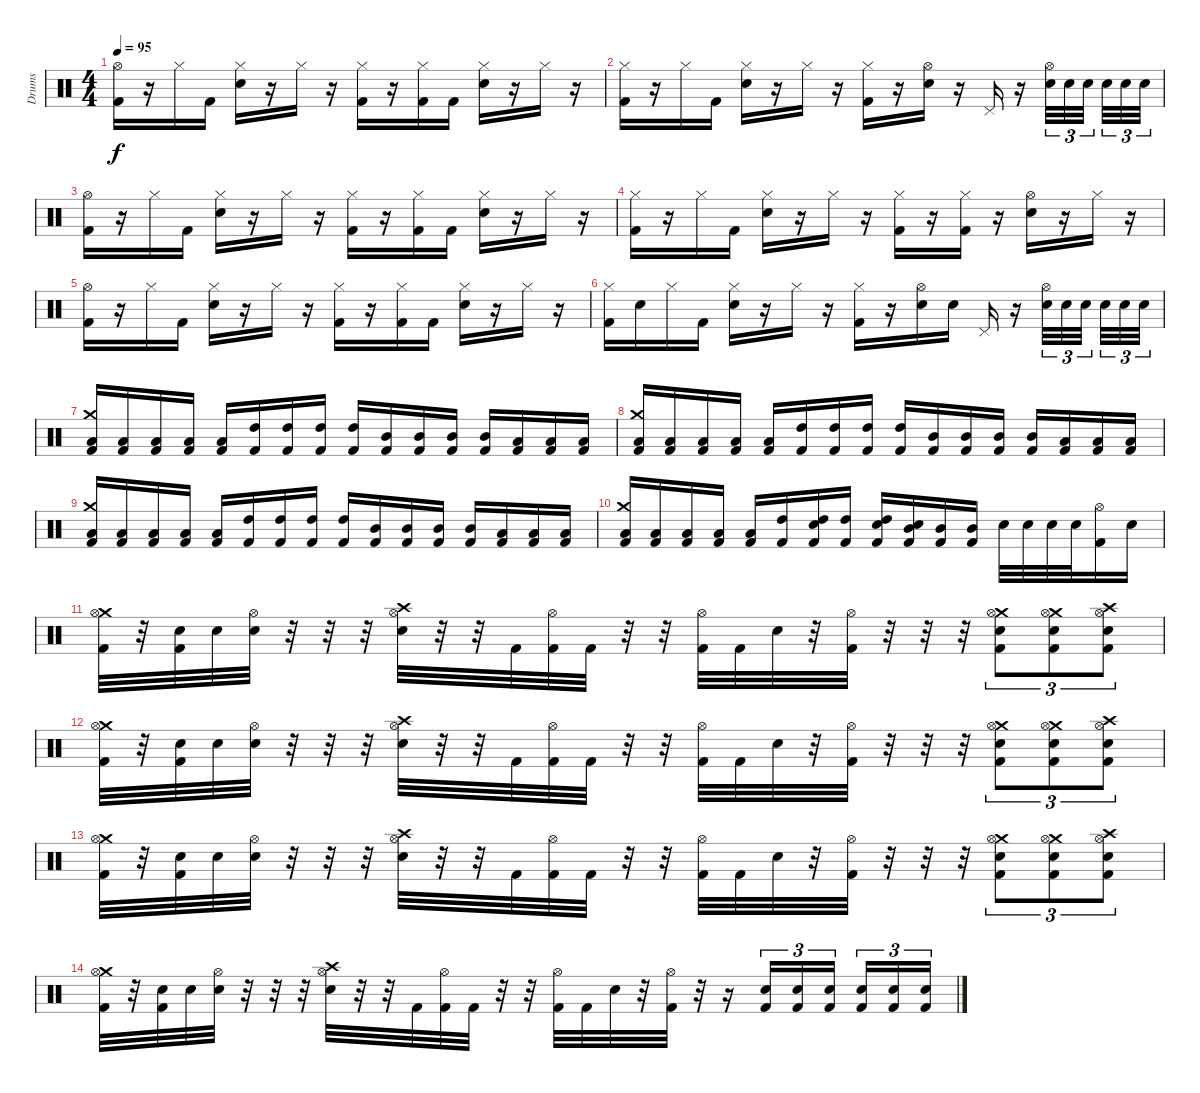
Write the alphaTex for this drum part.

\track ("Drums" "Drums") {instrument percussion}
\staff {score}
\articulation defaults
\ts (4 4)
\tempo 95
\clef neutral
\ks c
("Hi-Hat (open)" "Kick (hit) 2").16{dy f} r.16 "Hi-Hat (closed)".16 "Kick (hit) 2".16 ("Hi-Hat (closed)" "Electric Snare (hit)").16 r.16 "Hi-Hat (closed)".16 r.16 ("Hi-Hat (closed)" "Kick (hit) 2").16 r.16 ("Hi-Hat (closed)" "Kick (hit) 2").16 "Kick (hit) 2".16 ("Hi-Hat (closed)" "Electric Snare (hit)").16 r.16 "Hi-Hat (closed)".16 r.16 |
("Hi-Hat (closed)" "Kick (hit) 2").16 r.16 "Hi-Hat (closed)".16 "Kick (hit) 2".16 ("Hi-Hat (closed)" "Electric Snare (hit)").16 r.16 "Hi-Hat (closed)".16 r.16 ("Hi-Hat (closed)" "Kick (hit) 2").16 r.16 ("Hi-Hat (open)" "Electric Snare (hit)").16 r.16 "Pedal Hi-Hat (hit)".16 r.16 ("Hi-Hat (open)" "Electric Snare (hit)").32{tu (3 2)} "Electric Snare (hit)".32{tu (3 2)} "Electric Snare (hit)".32{tu (3 2)} "Electric Snare (hit)".32{tu (3 2)} "Electric Snare (hit)".32{tu (3 2)} "Electric Snare (hit)".32{tu (3 2)} |
("Hi-Hat (open)" "Kick (hit) 2").16 r.16 "Hi-Hat (closed)".16 "Kick (hit) 2".16 ("Hi-Hat (closed)" "Electric Snare (hit)").16 r.16 "Hi-Hat (closed)".16 r.16 ("Hi-Hat (closed)" "Kick (hit) 2").16 r.16 ("Hi-Hat (closed)" "Kick (hit) 2").16 "Kick (hit) 2".16 ("Hi-Hat (closed)" "Electric Snare (hit)").16 r.16 "Hi-Hat (closed)".16 r.16 |
("Hi-Hat (closed)" "Kick (hit) 2").16 r.16 "Hi-Hat (closed)".16 "Kick (hit) 2".16 ("Hi-Hat (closed)" "Electric Snare (hit)").16 r.16 "Hi-Hat (closed)".16 r.16 ("Hi-Hat (closed)" "Kick (hit) 2").16 r.16 ("Hi-Hat (closed)" "Kick (hit) 2").16 r.16 ("Hi-Hat (open)" "Electric Snare (hit)").16 r.16 "Hi-Hat (closed)".16 r.16 |
("Hi-Hat (open)" "Kick (hit) 2").16 r.16 "Hi-Hat (closed)".16 "Kick (hit) 2".16 ("Hi-Hat (closed)" "Electric Snare (hit)").16 r.16 "Hi-Hat (closed)".16 r.16 ("Hi-Hat (closed)" "Kick (hit) 2").16 r.16 ("Hi-Hat (closed)" "Kick (hit) 2").16 "Kick (hit) 2".16 ("Hi-Hat (closed)" "Electric Snare (hit)").16 r.16 "Hi-Hat (closed)".16 r.16 |
("Hi-Hat (closed)" "Kick (hit) 2").16 "Electric Snare (hit)".16 "Hi-Hat (closed)".16 "Kick (hit) 2".16 ("Hi-Hat (closed)" "Electric Snare (hit)").16 r.16 "Hi-Hat (closed)".16 r.16 ("Hi-Hat (closed)" "Kick (hit) 2").16 r.16 ("Hi-Hat (open)" "Electric Snare (hit)").16 "Electric Snare (hit)".16 "Pedal Hi-Hat (hit)".16 r.16 ("Hi-Hat (open)" "Electric Snare (hit)").32{tu (3 2)} "Electric Snare (hit)".32{tu (3 2)} "Electric Snare (hit)".32{tu (3 2)} "Electric Snare (hit)".32{tu (3 2)} "Electric Snare (hit)".32{tu (3 2)} "Electric Snare (hit)".32{tu (3 2)} |
("Crash medium (hit)" "Low Tom (hit)" "Kick (hit) 2").16 ("Low Tom (hit)" "Kick (hit) 2").16 ("Low Tom (hit)" "Kick (hit) 2").16 ("Low Tom (hit)" "Kick (hit) 2").16 ("Low Tom (hit)" "Kick (hit) 2").16 ("High Tom (hit)" "Kick (hit) 2").16 ("High Tom (hit)" "Kick (hit) 2").16 ("High Tom (hit)" "Kick (hit) 2").16 ("High Tom (hit)" "Kick (hit) 2").16 ("Mid Tom (hit)" "Kick (hit) 2").16 ("Mid Tom (hit)" "Kick (hit) 2").16 ("Mid Tom (hit)" "Kick (hit) 2").16 ("Mid Tom (hit)" "Kick (hit) 2").16 ("Low Tom (hit)" "Kick (hit) 2").16 ("Low Tom (hit)" "Kick (hit) 2").16 ("Low Tom (hit)" "Kick (hit) 2").16 |
("Crash medium (hit)" "Low Tom (hit)" "Kick (hit) 2").16 ("Low Tom (hit)" "Kick (hit) 2").16 ("Low Tom (hit)" "Kick (hit) 2").16 ("Low Tom (hit)" "Kick (hit) 2").16 ("Low Tom (hit)" "Kick (hit) 2").16 ("High Tom (hit)" "Kick (hit) 2").16 ("High Tom (hit)" "Kick (hit) 2").16 ("High Tom (hit)" "Kick (hit) 2").16 ("High Tom (hit)" "Kick (hit) 2").16 ("Mid Tom (hit)" "Kick (hit) 2").16 ("Mid Tom (hit)" "Kick (hit) 2").16 ("Mid Tom (hit)" "Kick (hit) 2").16 ("Mid Tom (hit)" "Kick (hit) 2").16 ("Low Tom (hit)" "Kick (hit) 2").16 ("Low Tom (hit)" "Kick (hit) 2").16 ("Low Tom (hit)" "Kick (hit) 2").16 |
("Crash medium (hit)" "Low Tom (hit)" "Kick (hit) 2").16 ("Low Tom (hit)" "Kick (hit) 2").16 ("Low Tom (hit)" "Kick (hit) 2").16 ("Low Tom (hit)" "Kick (hit) 2").16 ("Low Tom (hit)" "Kick (hit) 2").16 ("High Tom (hit)" "Kick (hit) 2").16 ("High Tom (hit)" "Kick (hit) 2").16 ("High Tom (hit)" "Kick (hit) 2").16 ("High Tom (hit)" "Kick (hit) 2").16 ("Mid Tom (hit)" "Kick (hit) 2").16 ("Mid Tom (hit)" "Kick (hit) 2").16 ("Mid Tom (hit)" "Kick (hit) 2").16 ("Mid Tom (hit)" "Kick (hit) 2").16 ("Low Tom (hit)" "Kick (hit) 2").16 ("Low Tom (hit)" "Kick (hit) 2").16 ("Low Tom (hit)" "Kick (hit) 2").16 |
("Crash medium (hit)" "Low Tom (hit)" "Kick (hit) 2").16 ("Low Tom (hit)" "Kick (hit) 2").16 ("Low Tom (hit)" "Kick (hit) 2").16 ("Low Tom (hit)" "Kick (hit) 2").16 ("Low Tom (hit)" "Kick (hit) 2").16 ("High Tom (hit)" "Kick (hit) 2").16 ("Electric Snare (hit)" "High Tom (hit)" "Kick (hit) 2").16 ("High Tom (hit)" "Kick (hit) 2").16 ("Electric Snare (hit)" "High Tom (hit)" "Kick (hit) 2").16 ("Electric Snare (hit)" "Mid Tom (hit)" "Kick (hit) 2").16 ("Mid Tom (hit)" "Kick (hit) 2").16 ("Mid Tom (hit)" "Kick (hit) 2").16 "Electric Snare (hit)".32 "Electric Snare (hit)".32 "Electric Snare (hit)".32 "Electric Snare (hit)".32 ("Hi-Hat (open)" "Kick (hit) 2").16 "Electric Snare (hit)".16 |
("Crash medium (hit)" "Hi-Hat (open)" "Kick (hit) 2").32 r.32 ("Electric Snare (hit)" "Kick (hit) 2").32 "Electric Snare (hit)".32 ("Electric Snare (hit)" "Hi-Hat (open)").32 r.32 r.32 r.32 ("Crash high (hit)" "Hi-Hat (open)" "Electric Snare (hit)").32 r.32 r.32 "Kick (hit) 2".32 ("Hi-Hat (open)" "Kick (hit) 2").32 "Kick (hit) 2".32 r.32 r.32 ("Hi-Hat (open)" "Kick (hit) 2").32 "Kick (hit) 2".32 "Electric Snare (hit)".32 r.32 ("Hi-Hat (open)" "Kick (hit) 2").32 r.32 r.32 r.32 ("Crash medium (hit)" "Hi-Hat (open)" "Electric Snare (hit)" "Kick (hit) 2").8{tu (3 2)} ("Crash medium (hit)" "Hi-Hat (open)" "Electric Snare (hit)" "Kick (hit) 2").8{tu (3 2)} ("Crash high (hit)" "Hi-Hat (open)" "Electric Snare (hit)" "Kick (hit) 2").8{tu (3 2)} |
("Crash medium (hit)" "Hi-Hat (open)" "Kick (hit) 2").32 r.32 ("Electric Snare (hit)" "Kick (hit) 2").32 "Electric Snare (hit)".32 ("Electric Snare (hit)" "Hi-Hat (open)").32 r.32 r.32 r.32 ("Crash high (hit)" "Hi-Hat (open)" "Electric Snare (hit)").32 r.32 r.32 "Kick (hit) 2".32 ("Hi-Hat (open)" "Kick (hit) 2").32 "Kick (hit) 2".32 r.32 r.32 ("Hi-Hat (open)" "Kick (hit) 2").32 "Kick (hit) 2".32 "Electric Snare (hit)".32 r.32 ("Hi-Hat (open)" "Kick (hit) 2").32 r.32 r.32 r.32 ("Crash medium (hit)" "Hi-Hat (open)" "Electric Snare (hit)" "Kick (hit) 2").8{tu (3 2)} ("Crash medium (hit)" "Hi-Hat (open)" "Electric Snare (hit)" "Kick (hit) 2").8{tu (3 2)} ("Crash high (hit)" "Hi-Hat (open)" "Electric Snare (hit)" "Kick (hit) 2").8{tu (3 2)} |
("Crash medium (hit)" "Hi-Hat (open)" "Kick (hit) 2").32 r.32 ("Electric Snare (hit)" "Kick (hit) 2").32 "Electric Snare (hit)".32 ("Electric Snare (hit)" "Hi-Hat (open)").32 r.32 r.32 r.32 ("Crash high (hit)" "Hi-Hat (open)" "Electric Snare (hit)").32 r.32 r.32 "Kick (hit) 2".32 ("Hi-Hat (open)" "Kick (hit) 2").32 "Kick (hit) 2".32 r.32 r.32 ("Hi-Hat (open)" "Kick (hit) 2").32 "Kick (hit) 2".32 "Electric Snare (hit)".32 r.32 ("Hi-Hat (open)" "Kick (hit) 2").32 r.32 r.32 r.32 ("Crash medium (hit)" "Hi-Hat (open)" "Electric Snare (hit)" "Kick (hit) 2").8{tu (3 2)} ("Crash medium (hit)" "Hi-Hat (open)" "Electric Snare (hit)" "Kick (hit) 2").8{tu (3 2)} ("Crash high (hit)" "Hi-Hat (open)" "Electric Snare (hit)" "Kick (hit) 2").8{tu (3 2)} |
("Crash medium (hit)" "Hi-Hat (open)" "Kick (hit) 2").32 r.32 ("Electric Snare (hit)" "Kick (hit) 2").32 "Electric Snare (hit)".32 ("Electric Snare (hit)" "Hi-Hat (open)").32 r.32 r.32 r.32 ("Crash high (hit)" "Hi-Hat (open)" "Electric Snare (hit)").32 r.32 r.32 "Kick (hit) 2".32 ("Hi-Hat (open)" "Kick (hit) 2").32 "Kick (hit) 2".32 r.32 r.32 ("Hi-Hat (open)" "Kick (hit) 2").32 "Kick (hit) 2".32 "Electric Snare (hit)".32 r.32 ("Hi-Hat (open)" "Kick (hit) 2").32 r.32 r.16 ("Electric Snare (hit)" "Kick (hit) 2").16{tu (3 2)} ("Electric Snare (hit)" "Kick (hit) 2").16{tu (3 2)} ("Electric Snare (hit)" "Kick (hit) 2").16{tu (3 2)} ("Electric Snare (hit)" "Kick (hit) 2").16{tu (3 2)} ("Electric Snare (hit)" "Kick (hit) 2").16{tu (3 2)} ("Electric Snare (hit)" "Kick (hit) 2").16{tu (3 2)}
